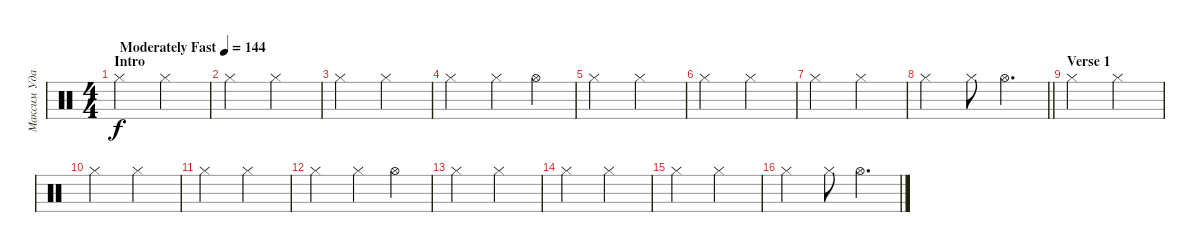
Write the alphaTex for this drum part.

\track ("Максим Удалов" "Максим Уда") {instrument percussion}
\staff {score}
\articulation defaults
\ts (4 4)
\section ("" "Intro")
\tempo (144 "Moderately Fast")
\clef neutral
\ks c "Hi-Hat (closed)".2{dy f} "Hi-Hat (closed)".2
|
"Hi-Hat (closed)".2 "Hi-Hat (closed)".2 |
"Hi-Hat (closed)".2 "Hi-Hat (closed)".2 |
"Hi-Hat (closed)".2 "Hi-Hat (closed)".4 "Hi-Hat (open)".4 |
"Hi-Hat (closed)".2 "Hi-Hat (closed)".2 |
"Hi-Hat (closed)".2 "Hi-Hat (closed)".2 |
"Hi-Hat (closed)".2 "Hi-Hat (closed)".2 |
\barLineRight lightlight "Hi-Hat (closed)".2 "Hi-Hat (closed)".8 "Hi-Hat (open)".4{d}
|
\section ("" "Verse 1")
"Hi-Hat (closed)".2 "Hi-Hat (closed)".2 |
"Hi-Hat (closed)".2 "Hi-Hat (closed)".2 |
"Hi-Hat (closed)".2 "Hi-Hat (closed)".2 |
"Hi-Hat (closed)".2 "Hi-Hat (closed)".4 "Hi-Hat (open)".4 |
"Hi-Hat (closed)".2 "Hi-Hat (closed)".2 |
"Hi-Hat (closed)".2 "Hi-Hat (closed)".2 |
"Hi-Hat (closed)".2 "Hi-Hat (closed)".2 |
"Hi-Hat (closed)".2 "Hi-Hat (closed)".8 "Hi-Hat (open)".4{d}
